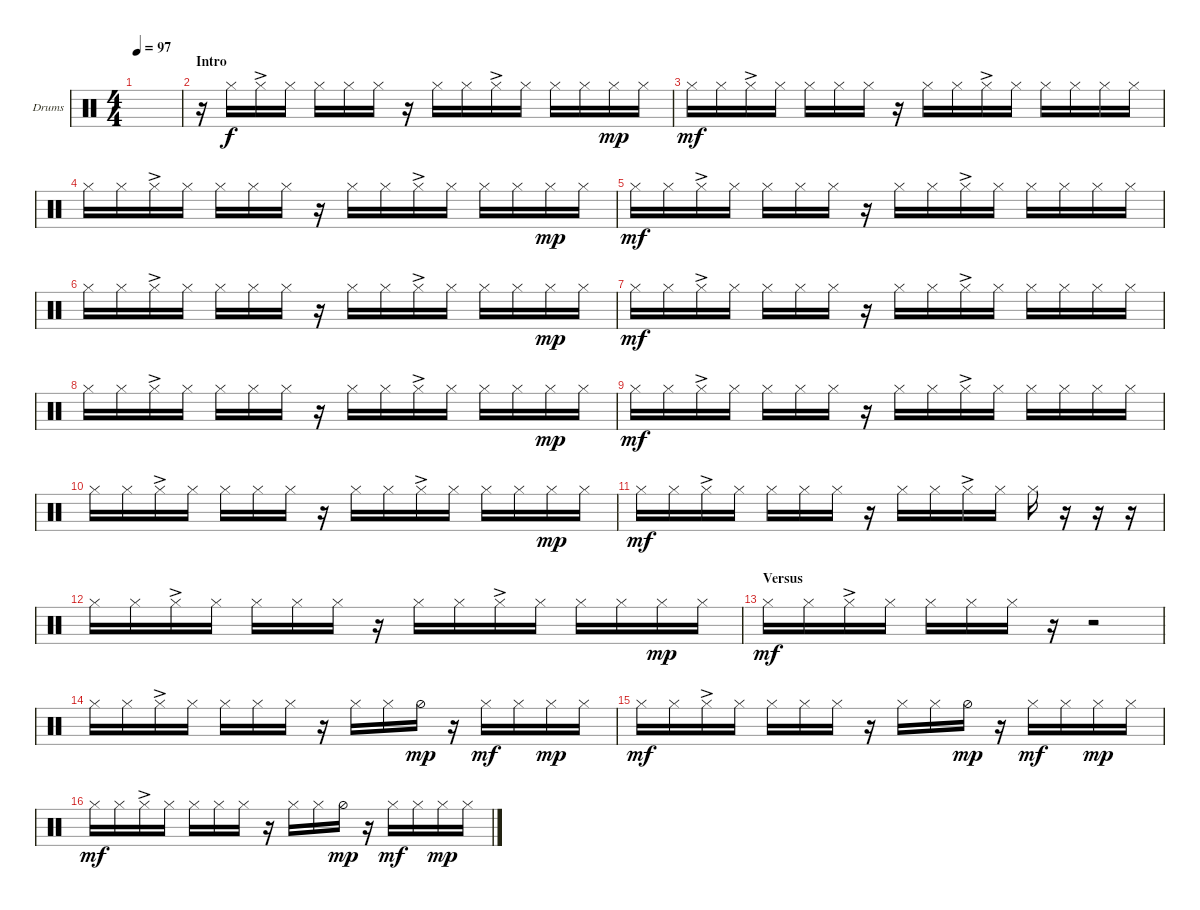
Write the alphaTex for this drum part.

\bracketExtendMode groupsimilarinstruments
\firstSystemTrackNameOrientation horizontal
\otherSystemsTrackNameOrientation horizontal
\track ("HH" "Drums") {instrument percussion}
\staff {score}
\articulation defaults
\ts (4 4)
\tempo 97
\clef neutral
\ks c
|
\section ("" "Intro")
r.16 "Hi-Hat (closed)".16 "Hi-Hat (closed)"{ac}.16 "Hi-Hat (closed)".16 "Hi-Hat (closed)".16 "Hi-Hat (closed)".16 "Hi-Hat (closed)".16 r.16 "Hi-Hat (closed)".16 "Hi-Hat (closed)".16 "Hi-Hat (closed)"{ac}.16 "Hi-Hat (closed)".16 "Hi-Hat (closed)".16 "Hi-Hat (closed)".16 "Hi-Hat (closed)".16{dy mp} "Hi-Hat (closed)".16 |
"Hi-Hat (closed)".16{dy mf} "Hi-Hat (closed)".16 "Hi-Hat (closed)"{ac}.16 "Hi-Hat (closed)".16 "Hi-Hat (closed)".16 "Hi-Hat (closed)".16 "Hi-Hat (closed)".16 r.16 "Hi-Hat (closed)".16 "Hi-Hat (closed)".16 "Hi-Hat (closed)"{ac}.16 "Hi-Hat (closed)".16 "Hi-Hat (closed)".16 "Hi-Hat (closed)".16 "Hi-Hat (closed)".16 "Hi-Hat (closed)".16 |
"Hi-Hat (closed)".16 "Hi-Hat (closed)".16 "Hi-Hat (closed)"{ac}.16 "Hi-Hat (closed)".16 "Hi-Hat (closed)".16 "Hi-Hat (closed)".16 "Hi-Hat (closed)".16 r.16 "Hi-Hat (closed)".16 "Hi-Hat (closed)".16 "Hi-Hat (closed)"{ac}.16 "Hi-Hat (closed)".16 "Hi-Hat (closed)".16 "Hi-Hat (closed)".16 "Hi-Hat (closed)".16{dy mp} "Hi-Hat (closed)".16 |
"Hi-Hat (closed)".16{dy mf} "Hi-Hat (closed)".16 "Hi-Hat (closed)"{ac}.16 "Hi-Hat (closed)".16 "Hi-Hat (closed)".16 "Hi-Hat (closed)".16 "Hi-Hat (closed)".16 r.16 "Hi-Hat (closed)".16 "Hi-Hat (closed)".16 "Hi-Hat (closed)"{ac}.16 "Hi-Hat (closed)".16 "Hi-Hat (closed)".16 "Hi-Hat (closed)".16 "Hi-Hat (closed)".16 "Hi-Hat (closed)".16 |
"Hi-Hat (closed)".16 "Hi-Hat (closed)".16 "Hi-Hat (closed)"{ac}.16 "Hi-Hat (closed)".16 "Hi-Hat (closed)".16 "Hi-Hat (closed)".16 "Hi-Hat (closed)".16 r.16 "Hi-Hat (closed)".16 "Hi-Hat (closed)".16 "Hi-Hat (closed)"{ac}.16 "Hi-Hat (closed)".16 "Hi-Hat (closed)".16 "Hi-Hat (closed)".16 "Hi-Hat (closed)".16{dy mp} "Hi-Hat (closed)".16 |
"Hi-Hat (closed)".16{dy mf} "Hi-Hat (closed)".16 "Hi-Hat (closed)"{ac}.16 "Hi-Hat (closed)".16 "Hi-Hat (closed)".16 "Hi-Hat (closed)".16 "Hi-Hat (closed)".16 r.16 "Hi-Hat (closed)".16 "Hi-Hat (closed)".16 "Hi-Hat (closed)"{ac}.16 "Hi-Hat (closed)".16 "Hi-Hat (closed)".16 "Hi-Hat (closed)".16 "Hi-Hat (closed)".16 "Hi-Hat (closed)".16 |
"Hi-Hat (closed)".16 "Hi-Hat (closed)".16 "Hi-Hat (closed)"{ac}.16 "Hi-Hat (closed)".16 "Hi-Hat (closed)".16 "Hi-Hat (closed)".16 "Hi-Hat (closed)".16 r.16 "Hi-Hat (closed)".16 "Hi-Hat (closed)".16 "Hi-Hat (closed)"{ac}.16 "Hi-Hat (closed)".16 "Hi-Hat (closed)".16 "Hi-Hat (closed)".16 "Hi-Hat (closed)".16{dy mp} "Hi-Hat (closed)".16 |
"Hi-Hat (closed)".16{dy mf} "Hi-Hat (closed)".16 "Hi-Hat (closed)"{ac}.16 "Hi-Hat (closed)".16 "Hi-Hat (closed)".16 "Hi-Hat (closed)".16 "Hi-Hat (closed)".16 r.16 "Hi-Hat (closed)".16 "Hi-Hat (closed)".16 "Hi-Hat (closed)"{ac}.16 "Hi-Hat (closed)".16 "Hi-Hat (closed)".16 "Hi-Hat (closed)".16 "Hi-Hat (closed)".16 "Hi-Hat (closed)".16 |
"Hi-Hat (closed)".16 "Hi-Hat (closed)".16 "Hi-Hat (closed)"{ac}.16 "Hi-Hat (closed)".16 "Hi-Hat (closed)".16 "Hi-Hat (closed)".16 "Hi-Hat (closed)".16 r.16 "Hi-Hat (closed)".16 "Hi-Hat (closed)".16 "Hi-Hat (closed)"{ac}.16 "Hi-Hat (closed)".16 "Hi-Hat (closed)".16 "Hi-Hat (closed)".16 "Hi-Hat (closed)".16{dy mp} "Hi-Hat (closed)".16 |
"Hi-Hat (closed)".16{dy mf} "Hi-Hat (closed)".16 "Hi-Hat (closed)"{ac}.16 "Hi-Hat (closed)".16 "Hi-Hat (closed)".16 "Hi-Hat (closed)".16 "Hi-Hat (closed)".16 r.16 "Hi-Hat (closed)".16 "Hi-Hat (closed)".16 "Hi-Hat (closed)"{ac}.16 "Hi-Hat (closed)".16 "Hi-Hat (closed)".16 r.16 r.16 r.16 |
"Hi-Hat (closed)".16 "Hi-Hat (closed)".16 "Hi-Hat (closed)"{ac}.16 "Hi-Hat (closed)".16 "Hi-Hat (closed)".16 "Hi-Hat (closed)".16 "Hi-Hat (closed)".16 r.16 "Hi-Hat (closed)".16 "Hi-Hat (closed)".16 "Hi-Hat (closed)"{ac}.16 "Hi-Hat (closed)".16 "Hi-Hat (closed)".16 "Hi-Hat (closed)".16 "Hi-Hat (closed)".16{dy mp} "Hi-Hat (closed)".16 |
\section ("" "Versus")
"Hi-Hat (closed)".16{dy mf} "Hi-Hat (closed)".16 "Hi-Hat (closed)"{ac}.16 "Hi-Hat (closed)".16 "Hi-Hat (closed)".16 "Hi-Hat (closed)".16 "Hi-Hat (closed)".16 r.16 r.2 |
"Hi-Hat (closed)".16 "Hi-Hat (closed)".16 "Hi-Hat (closed)"{ac}.16 "Hi-Hat (closed)".16 "Hi-Hat (closed)".16 "Hi-Hat (closed)".16 "Hi-Hat (closed)".16 r.16 "Hi-Hat (closed)".16 "Hi-Hat (closed)".16 "Hi-Hat (half)".16{dy mp} r.16 "Hi-Hat (closed)".16{dy mf} "Hi-Hat (closed)".16 "Hi-Hat (closed)".16{dy mp} "Hi-Hat (closed)".16 |
"Hi-Hat (closed)".16{dy mf} "Hi-Hat (closed)".16 "Hi-Hat (closed)"{ac}.16 "Hi-Hat (closed)".16 "Hi-Hat (closed)".16 "Hi-Hat (closed)".16 "Hi-Hat (closed)".16 r.16 "Hi-Hat (closed)".16 "Hi-Hat (closed)".16 "Hi-Hat (half)".16{dy mp} r.16 "Hi-Hat (closed)".16{dy mf} "Hi-Hat (closed)".16 "Hi-Hat (closed)".16{dy mp} "Hi-Hat (closed)".16 |
"Hi-Hat (closed)".16{dy mf} "Hi-Hat (closed)".16 "Hi-Hat (closed)"{ac}.16 "Hi-Hat (closed)".16 "Hi-Hat (closed)".16 "Hi-Hat (closed)".16 "Hi-Hat (closed)".16 r.16 "Hi-Hat (closed)".16 "Hi-Hat (closed)".16 "Hi-Hat (half)".16{dy mp} r.16 "Hi-Hat (closed)".16{dy mf} "Hi-Hat (closed)".16 "Hi-Hat (closed)".16{dy mp} "Hi-Hat (closed)".16
